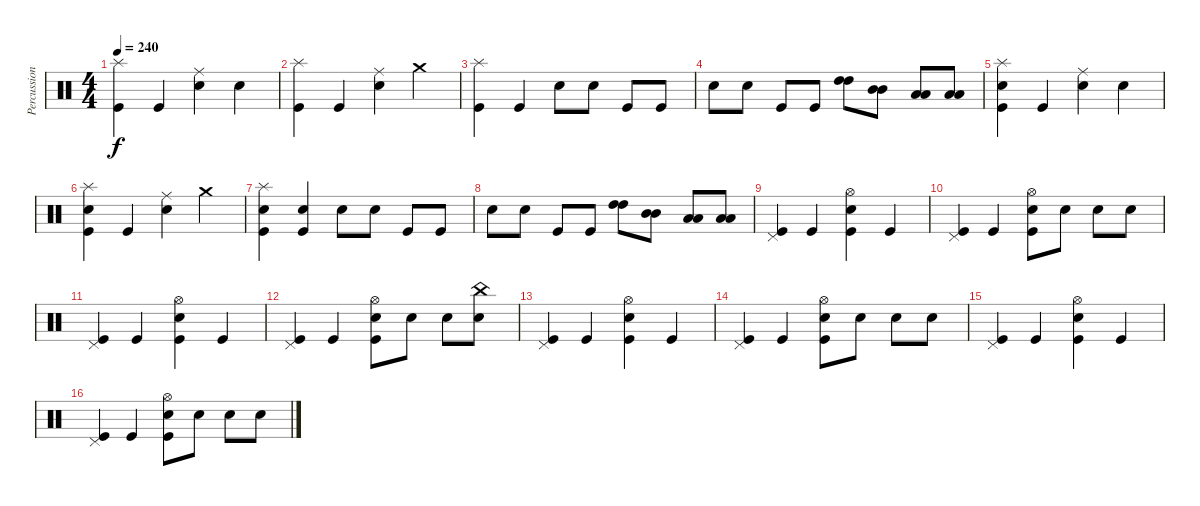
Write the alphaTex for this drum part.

\track ("Percussion" "Percussion") {instrument percussion}
\staff {score}
\articulation defaults
\ts (4 4)
\tempo 240
\clef neutral
\ks c
("Splash (hit)" "Kick (hit)").4{dy f} "Kick (hit)".4 ("Ride (middle)" "Snare (hit) 2").4 "Snare (hit) 2".4 |
("Splash (hit)" "Kick (hit)").4 "Kick (hit)".4 ("Ride (middle)" "Snare (hit) 2").4 "Crash medium (hit)".4 |
("Splash (hit)" "Kick (hit)").4 "Kick (hit)".4 "Snare (hit) 2".8 "Snare (hit) 2".8 "Kick (hit)".8 "Kick (hit)".8 |
"Snare (hit) 2".8 "Snare (hit) 2".8 "Kick (hit)".8 "Kick (hit)".8 ("High Tom (hit)" "High Tom (hit)").8 ("Mid Tom (hit)" "Mid Tom (hit)").8 ("Low Tom (hit)" "Low Tom (hit)").8 ("Low Floor Tom (hit)" "Low Floor Tom (hit)").8 |
("Splash (hit)" "Snare (hit) 2" "Kick (hit)").4 "Kick (hit)".4 ("Ride (middle)" "Snare (hit) 2").4 "Snare (hit) 2".4 |
("Splash (hit)" "Snare (hit) 2" "Kick (hit)").4 "Kick (hit)".4 ("Ride (middle)" "Snare (hit) 2").4 "Crash medium (hit)".4 |
("Splash (hit)" "Snare (hit) 2" "Kick (hit)").4 ("Snare (hit) 2" "Kick (hit)").4 "Snare (hit) 2".8 "Snare (hit) 2".8 "Kick (hit)".8 "Kick (hit)".8 |
"Snare (hit) 2".8 "Snare (hit) 2".8 "Kick (hit)".8 "Kick (hit)".8 ("High Tom (hit)" "High Tom (hit)").8 ("Mid Tom (hit)" "Mid Tom (hit)").8 ("Low Tom (hit)" "Low Tom (hit)").8 ("Low Floor Tom (hit)" "Low Floor Tom (hit)").8 |
("Pedal Hi-Hat (hit)" "Kick (hit)").4 "Kick (hit)".4 ("Hi-Hat (open)" "Snare (hit) 2" "Kick (hit)").4 "Kick (hit)".4 |
("Pedal Hi-Hat (hit)" "Kick (hit)").4 "Kick (hit)".4 ("Hi-Hat (open)" "Snare (hit) 2" "Kick (hit)").8 "Snare (hit) 2".8 "Snare (hit) 2".8 "Snare (hit) 2".8 |
("Pedal Hi-Hat (hit)" "Kick (hit)").4 "Kick (hit)".4 ("Hi-Hat (open)" "Snare (hit) 2" "Kick (hit)").4 "Kick (hit)".4 |
("Pedal Hi-Hat (hit)" "Kick (hit)").4 "Kick (hit)".4 ("Hi-Hat (open)" "Snare (hit) 2" "Kick (hit)").8 "Snare (hit) 2".8 "Snare (hit) 2".8 ("China (hit)" "Snare (hit) 2").8 |
("Pedal Hi-Hat (hit)" "Kick (hit)").4 "Kick (hit)".4 ("Hi-Hat (open)" "Snare (hit) 2" "Kick (hit)").4 "Kick (hit)".4 |
("Pedal Hi-Hat (hit)" "Kick (hit)").4 "Kick (hit)".4 ("Hi-Hat (open)" "Snare (hit) 2" "Kick (hit)").8 "Snare (hit) 2".8 "Snare (hit) 2".8 "Snare (hit) 2".8 |
("Pedal Hi-Hat (hit)" "Kick (hit)").4 "Kick (hit)".4 ("Hi-Hat (open)" "Snare (hit) 2" "Kick (hit)").4 "Kick (hit)".4 |
("Pedal Hi-Hat (hit)" "Kick (hit)").4 "Kick (hit)".4 ("Hi-Hat (open)" "Snare (hit) 2" "Kick (hit)").8 "Snare (hit) 2".8 "Snare (hit) 2".8 "Snare (hit) 2".8
